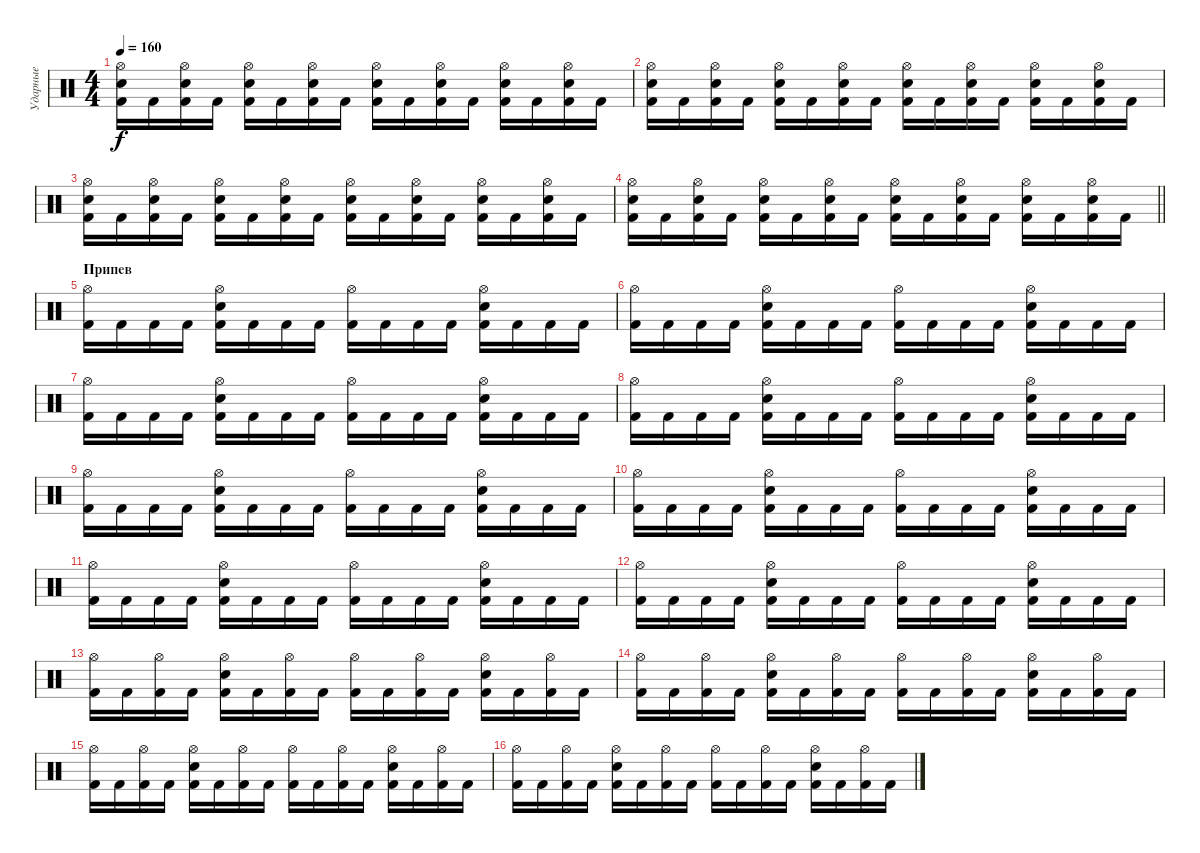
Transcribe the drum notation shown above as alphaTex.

\track ("Ударные" "Ударные") {instrument percussion}
\staff {score}
\articulation defaults
\ts (4 4)
\tempo 160
\clef neutral
\ks c
("Hi-Hat (open)" "Snare (hit) 2" "Kick (hit) 2").16{dy f} "Kick (hit) 2".16 ("Hi-Hat (open)" "Snare (hit) 2" "Kick (hit) 2").16 "Kick (hit) 2".16 ("Hi-Hat (open)" "Snare (hit) 2" "Kick (hit) 2").16 "Kick (hit) 2".16 ("Hi-Hat (open)" "Snare (hit) 2" "Kick (hit) 2").16 "Kick (hit) 2".16 ("Hi-Hat (open)" "Snare (hit) 2" "Kick (hit) 2").16 "Kick (hit) 2".16 ("Hi-Hat (open)" "Snare (hit) 2" "Kick (hit) 2").16 "Kick (hit) 2".16 ("Hi-Hat (open)" "Snare (hit) 2" "Kick (hit) 2").16 "Kick (hit) 2".16 ("Hi-Hat (open)" "Snare (hit) 2" "Kick (hit) 2").16 "Kick (hit) 2".16 |
("Hi-Hat (open)" "Snare (hit) 2" "Kick (hit) 2").16 "Kick (hit) 2".16 ("Hi-Hat (open)" "Snare (hit) 2" "Kick (hit) 2").16 "Kick (hit) 2".16 ("Hi-Hat (open)" "Snare (hit) 2" "Kick (hit) 2").16 "Kick (hit) 2".16 ("Hi-Hat (open)" "Snare (hit) 2" "Kick (hit) 2").16 "Kick (hit) 2".16 ("Hi-Hat (open)" "Snare (hit) 2" "Kick (hit) 2").16 "Kick (hit) 2".16 ("Hi-Hat (open)" "Snare (hit) 2" "Kick (hit) 2").16 "Kick (hit) 2".16 ("Hi-Hat (open)" "Snare (hit) 2" "Kick (hit) 2").16 "Kick (hit) 2".16 ("Hi-Hat (open)" "Snare (hit) 2" "Kick (hit) 2").16 "Kick (hit) 2".16 |
("Hi-Hat (open)" "Snare (hit) 2" "Kick (hit) 2").16 "Kick (hit) 2".16 ("Hi-Hat (open)" "Snare (hit) 2" "Kick (hit) 2").16 "Kick (hit) 2".16 ("Hi-Hat (open)" "Snare (hit) 2" "Kick (hit) 2").16 "Kick (hit) 2".16 ("Hi-Hat (open)" "Snare (hit) 2" "Kick (hit) 2").16 "Kick (hit) 2".16 ("Hi-Hat (open)" "Snare (hit) 2" "Kick (hit) 2").16 "Kick (hit) 2".16 ("Hi-Hat (open)" "Snare (hit) 2" "Kick (hit) 2").16 "Kick (hit) 2".16 ("Hi-Hat (open)" "Snare (hit) 2" "Kick (hit) 2").16 "Kick (hit) 2".16 ("Hi-Hat (open)" "Snare (hit) 2" "Kick (hit) 2").16 "Kick (hit) 2".16 |
\barLineRight lightlight
("Hi-Hat (open)" "Snare (hit) 2" "Kick (hit) 2").16 "Kick (hit) 2".16 ("Hi-Hat (open)" "Snare (hit) 2" "Kick (hit) 2").16 "Kick (hit) 2".16 ("Hi-Hat (open)" "Snare (hit) 2" "Kick (hit) 2").16 "Kick (hit) 2".16 ("Hi-Hat (open)" "Snare (hit) 2" "Kick (hit) 2").16 "Kick (hit) 2".16 ("Hi-Hat (open)" "Snare (hit) 2" "Kick (hit) 2").16 "Kick (hit) 2".16 ("Hi-Hat (open)" "Snare (hit) 2" "Kick (hit) 2").16 "Kick (hit) 2".16 ("Hi-Hat (open)" "Snare (hit) 2" "Kick (hit) 2").16 "Kick (hit) 2".16 ("Hi-Hat (open)" "Snare (hit) 2" "Kick (hit) 2").16 "Kick (hit) 2".16 |
\section ("" "Припев")
("Hi-Hat (open)" "Kick (hit) 2").16 "Kick (hit) 2".16 "Kick (hit) 2".16 "Kick (hit) 2".16 ("Hi-Hat (open)" "Snare (hit) 2" "Kick (hit) 2").16 "Kick (hit) 2".16 "Kick (hit) 2".16 "Kick (hit) 2".16 ("Hi-Hat (open)" "Kick (hit) 2").16 "Kick (hit) 2".16 "Kick (hit) 2".16 "Kick (hit) 2".16 ("Hi-Hat (open)" "Snare (hit) 2" "Kick (hit) 2").16 "Kick (hit) 2".16 "Kick (hit) 2".16 "Kick (hit) 2".16 |
("Hi-Hat (open)" "Kick (hit) 2").16 "Kick (hit) 2".16 "Kick (hit) 2".16 "Kick (hit) 2".16 ("Hi-Hat (open)" "Snare (hit) 2" "Kick (hit) 2").16 "Kick (hit) 2".16 "Kick (hit) 2".16 "Kick (hit) 2".16 ("Hi-Hat (open)" "Kick (hit) 2").16 "Kick (hit) 2".16 "Kick (hit) 2".16 "Kick (hit) 2".16 ("Hi-Hat (open)" "Snare (hit) 2" "Kick (hit) 2").16 "Kick (hit) 2".16 "Kick (hit) 2".16 "Kick (hit) 2".16 |
("Hi-Hat (open)" "Kick (hit) 2").16 "Kick (hit) 2".16 "Kick (hit) 2".16 "Kick (hit) 2".16 ("Hi-Hat (open)" "Snare (hit) 2" "Kick (hit) 2").16 "Kick (hit) 2".16 "Kick (hit) 2".16 "Kick (hit) 2".16 ("Hi-Hat (open)" "Kick (hit) 2").16 "Kick (hit) 2".16 "Kick (hit) 2".16 "Kick (hit) 2".16 ("Hi-Hat (open)" "Snare (hit) 2" "Kick (hit) 2").16 "Kick (hit) 2".16 "Kick (hit) 2".16 "Kick (hit) 2".16 |
("Hi-Hat (open)" "Kick (hit) 2").16 "Kick (hit) 2".16 "Kick (hit) 2".16 "Kick (hit) 2".16 ("Hi-Hat (open)" "Snare (hit) 2" "Kick (hit) 2").16 "Kick (hit) 2".16 "Kick (hit) 2".16 "Kick (hit) 2".16 ("Hi-Hat (open)" "Kick (hit) 2").16 "Kick (hit) 2".16 "Kick (hit) 2".16 "Kick (hit) 2".16 ("Hi-Hat (open)" "Snare (hit) 2" "Kick (hit) 2").16 "Kick (hit) 2".16 "Kick (hit) 2".16 "Kick (hit) 2".16 |
("Hi-Hat (open)" "Kick (hit) 2").16 "Kick (hit) 2".16 "Kick (hit) 2".16 "Kick (hit) 2".16 ("Hi-Hat (open)" "Snare (hit) 2" "Kick (hit) 2").16 "Kick (hit) 2".16 "Kick (hit) 2".16 "Kick (hit) 2".16 ("Hi-Hat (open)" "Kick (hit) 2").16 "Kick (hit) 2".16 "Kick (hit) 2".16 "Kick (hit) 2".16 ("Hi-Hat (open)" "Snare (hit) 2" "Kick (hit) 2").16 "Kick (hit) 2".16 "Kick (hit) 2".16 "Kick (hit) 2".16 |
("Hi-Hat (open)" "Kick (hit) 2").16 "Kick (hit) 2".16 "Kick (hit) 2".16 "Kick (hit) 2".16 ("Hi-Hat (open)" "Snare (hit) 2" "Kick (hit) 2").16 "Kick (hit) 2".16 "Kick (hit) 2".16 "Kick (hit) 2".16 ("Hi-Hat (open)" "Kick (hit) 2").16 "Kick (hit) 2".16 "Kick (hit) 2".16 "Kick (hit) 2".16 ("Hi-Hat (open)" "Snare (hit) 2" "Kick (hit) 2").16 "Kick (hit) 2".16 "Kick (hit) 2".16 "Kick (hit) 2".16 |
("Hi-Hat (open)" "Kick (hit) 2").16 "Kick (hit) 2".16 "Kick (hit) 2".16 "Kick (hit) 2".16 ("Hi-Hat (open)" "Snare (hit) 2" "Kick (hit) 2").16 "Kick (hit) 2".16 "Kick (hit) 2".16 "Kick (hit) 2".16 ("Hi-Hat (open)" "Kick (hit) 2").16 "Kick (hit) 2".16 "Kick (hit) 2".16 "Kick (hit) 2".16 ("Hi-Hat (open)" "Snare (hit) 2" "Kick (hit) 2").16 "Kick (hit) 2".16 "Kick (hit) 2".16 "Kick (hit) 2".16 |
("Hi-Hat (open)" "Kick (hit) 2").16 "Kick (hit) 2".16 "Kick (hit) 2".16 "Kick (hit) 2".16 ("Hi-Hat (open)" "Snare (hit) 2" "Kick (hit) 2").16 "Kick (hit) 2".16 "Kick (hit) 2".16 "Kick (hit) 2".16 ("Hi-Hat (open)" "Kick (hit) 2").16 "Kick (hit) 2".16 "Kick (hit) 2".16 "Kick (hit) 2".16 ("Hi-Hat (open)" "Snare (hit) 2" "Kick (hit) 2").16 "Kick (hit) 2".16 "Kick (hit) 2".16 "Kick (hit) 2".16 |
("Hi-Hat (open)" "Kick (hit) 2").16 "Kick (hit) 2".16 ("Hi-Hat (open)" "Kick (hit) 2").16 "Kick (hit) 2".16 ("Hi-Hat (open)" "Snare (hit) 2" "Kick (hit) 2").16 "Kick (hit) 2".16 ("Hi-Hat (open)" "Kick (hit) 2").16 "Kick (hit) 2".16 ("Hi-Hat (open)" "Kick (hit) 2").16 "Kick (hit) 2".16 ("Hi-Hat (open)" "Kick (hit) 2").16 "Kick (hit) 2".16 ("Hi-Hat (open)" "Snare (hit) 2" "Kick (hit) 2").16 "Kick (hit) 2".16 ("Hi-Hat (open)" "Kick (hit) 2").16 "Kick (hit) 2".16 |
("Hi-Hat (open)" "Kick (hit) 2").16 "Kick (hit) 2".16 ("Hi-Hat (open)" "Kick (hit) 2").16 "Kick (hit) 2".16 ("Hi-Hat (open)" "Snare (hit) 2" "Kick (hit) 2").16 "Kick (hit) 2".16 ("Hi-Hat (open)" "Kick (hit) 2").16 "Kick (hit) 2".16 ("Hi-Hat (open)" "Kick (hit) 2").16 "Kick (hit) 2".16 ("Hi-Hat (open)" "Kick (hit) 2").16 "Kick (hit) 2".16 ("Hi-Hat (open)" "Snare (hit) 2" "Kick (hit) 2").16 "Kick (hit) 2".16 ("Hi-Hat (open)" "Kick (hit) 2").16 "Kick (hit) 2".16 |
("Hi-Hat (open)" "Kick (hit) 2").16 "Kick (hit) 2".16 ("Hi-Hat (open)" "Kick (hit) 2").16 "Kick (hit) 2".16 ("Hi-Hat (open)" "Snare (hit) 2" "Kick (hit) 2").16 "Kick (hit) 2".16 ("Hi-Hat (open)" "Kick (hit) 2").16 "Kick (hit) 2".16 ("Hi-Hat (open)" "Kick (hit) 2").16 "Kick (hit) 2".16 ("Hi-Hat (open)" "Kick (hit) 2").16 "Kick (hit) 2".16 ("Hi-Hat (open)" "Snare (hit) 2" "Kick (hit) 2").16 "Kick (hit) 2".16 ("Hi-Hat (open)" "Kick (hit) 2").16 "Kick (hit) 2".16 |
("Hi-Hat (open)" "Kick (hit) 2").16 "Kick (hit) 2".16 ("Hi-Hat (open)" "Kick (hit) 2").16 "Kick (hit) 2".16 ("Hi-Hat (open)" "Snare (hit) 2" "Kick (hit) 2").16 "Kick (hit) 2".16 ("Hi-Hat (open)" "Kick (hit) 2").16 "Kick (hit) 2".16 ("Hi-Hat (open)" "Kick (hit) 2").16 "Kick (hit) 2".16 ("Hi-Hat (open)" "Kick (hit) 2").16 "Kick (hit) 2".16 ("Hi-Hat (open)" "Snare (hit) 2" "Kick (hit) 2").16 "Kick (hit) 2".16 ("Hi-Hat (open)" "Kick (hit) 2").16 "Kick (hit) 2".16
